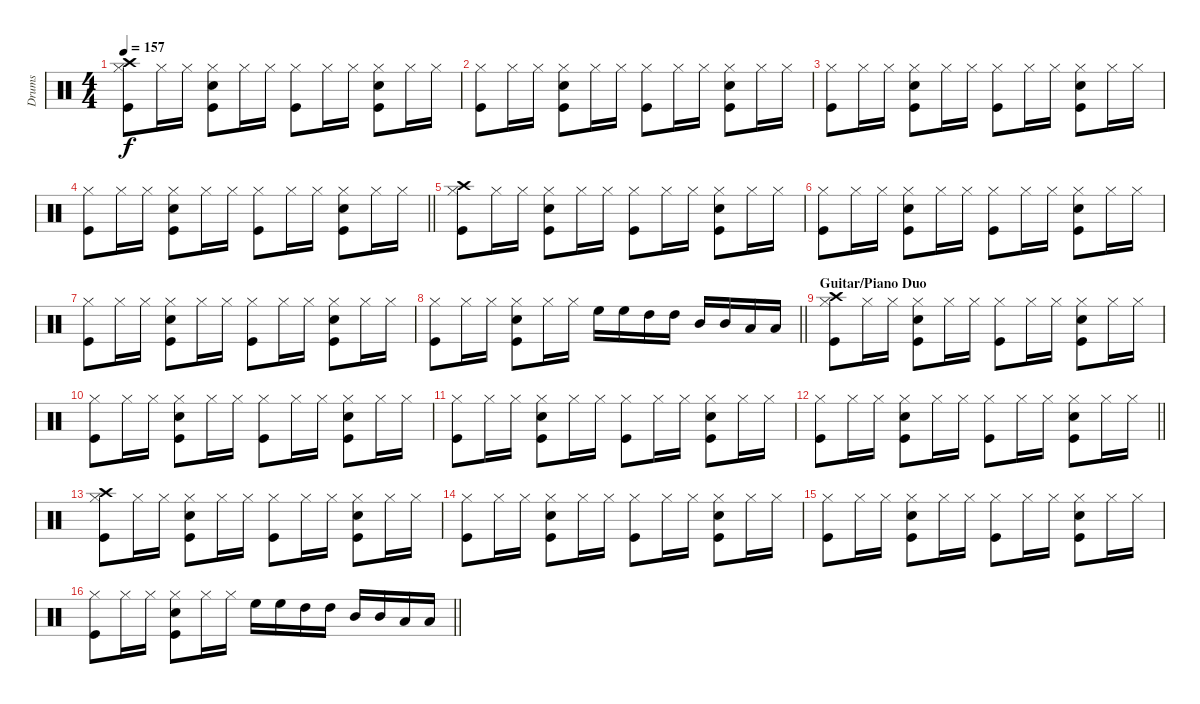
\track ("Drums" "Drums") {instrument percussion}
\staff {score}
\articulation defaults
\ts (4 4)
\tempo 157
\clef neutral
\ks c
("Hi-Hat (closed)" "Kick (hit)" "Crash high (hit)").8{dy f} "Hi-Hat (closed)".16 "Hi-Hat (closed)".16 ("Hi-Hat (closed)" "Kick (hit)" "Snare (hit) 2").8 "Hi-Hat (closed)".16 "Hi-Hat (closed)".16 ("Hi-Hat (closed)" "Kick (hit)").8 "Hi-Hat (closed)".16 "Hi-Hat (closed)".16 ("Hi-Hat (closed)" "Kick (hit)" "Snare (hit) 2").8 "Hi-Hat (closed)".16 "Hi-Hat (closed)".16 |
("Hi-Hat (closed)" "Kick (hit)").8 "Hi-Hat (closed)".16 "Hi-Hat (closed)".16 ("Hi-Hat (closed)" "Kick (hit)" "Snare (hit) 2").8 "Hi-Hat (closed)".16 "Hi-Hat (closed)".16 ("Hi-Hat (closed)" "Kick (hit)").8 "Hi-Hat (closed)".16 "Hi-Hat (closed)".16 ("Hi-Hat (closed)" "Kick (hit)" "Snare (hit) 2").8 "Hi-Hat (closed)".16 "Hi-Hat (closed)".16 |
("Hi-Hat (closed)" "Kick (hit)").8 "Hi-Hat (closed)".16 "Hi-Hat (closed)".16 ("Hi-Hat (closed)" "Kick (hit)" "Snare (hit) 2").8 "Hi-Hat (closed)".16 "Hi-Hat (closed)".16 ("Hi-Hat (closed)" "Kick (hit)").8 "Hi-Hat (closed)".16 "Hi-Hat (closed)".16 ("Hi-Hat (closed)" "Kick (hit)" "Snare (hit) 2").8 "Hi-Hat (closed)".16 "Hi-Hat (closed)".16 |
\barLineRight lightlight
("Hi-Hat (closed)" "Kick (hit)").8 "Hi-Hat (closed)".16 "Hi-Hat (closed)".16 ("Hi-Hat (closed)" "Kick (hit)" "Snare (hit) 2").8 "Hi-Hat (closed)".16 "Hi-Hat (closed)".16 ("Hi-Hat (closed)" "Kick (hit)").8 "Hi-Hat (closed)".16 "Hi-Hat (closed)".16 ("Hi-Hat (closed)" "Kick (hit)" "Snare (hit) 2").8 "Hi-Hat (closed)".16 "Hi-Hat (closed)".16 |
("Hi-Hat (closed)" "Kick (hit)" "Crash high (hit)").8 "Hi-Hat (closed)".16 "Hi-Hat (closed)".16 ("Hi-Hat (closed)" "Kick (hit)" "Snare (hit) 2").8 "Hi-Hat (closed)".16 "Hi-Hat (closed)".16 ("Hi-Hat (closed)" "Kick (hit)").8 "Hi-Hat (closed)".16 "Hi-Hat (closed)".16 ("Hi-Hat (closed)" "Kick (hit)" "Snare (hit) 2").8 "Hi-Hat (closed)".16 "Hi-Hat (closed)".16 |
("Hi-Hat (closed)" "Kick (hit)").8 "Hi-Hat (closed)".16 "Hi-Hat (closed)".16 ("Hi-Hat (closed)" "Kick (hit)" "Snare (hit) 2").8 "Hi-Hat (closed)".16 "Hi-Hat (closed)".16 ("Hi-Hat (closed)" "Kick (hit)").8 "Hi-Hat (closed)".16 "Hi-Hat (closed)".16 ("Hi-Hat (closed)" "Kick (hit)" "Snare (hit) 2").8 "Hi-Hat (closed)".16 "Hi-Hat (closed)".16 |
("Hi-Hat (closed)" "Kick (hit)").8 "Hi-Hat (closed)".16 "Hi-Hat (closed)".16 ("Hi-Hat (closed)" "Kick (hit)" "Snare (hit) 2").8 "Hi-Hat (closed)".16 "Hi-Hat (closed)".16 ("Hi-Hat (closed)" "Kick (hit)").8 "Hi-Hat (closed)".16 "Hi-Hat (closed)".16 ("Hi-Hat (closed)" "Kick (hit)" "Snare (hit) 2").8 "Hi-Hat (closed)".16 "Hi-Hat (closed)".16 |
\barLineRight lightlight
("Hi-Hat (closed)" "Kick (hit)").8 "Hi-Hat (closed)".16 "Hi-Hat (closed)".16 ("Hi-Hat (closed)" "Kick (hit)" "Snare (hit) 2").8 "Hi-Hat (closed)".16 "Hi-Hat (closed)".16 "High Floor Tom (hit)".16 "High Floor Tom (hit)".16 "High Tom (hit)".16 "High Tom (hit)".16 "Mid Tom (hit)".16 "Mid Tom (hit)".16 "Low Tom (hit)".16 "Low Tom (hit)".16 |
\section ("" "Guitar/Piano Duo")
("Hi-Hat (closed)" "Kick (hit)" "Crash high (hit)").8 "Hi-Hat (closed)".16 "Hi-Hat (closed)".16 ("Hi-Hat (closed)" "Kick (hit)" "Snare (hit) 2").8 "Hi-Hat (closed)".16 "Hi-Hat (closed)".16 ("Hi-Hat (closed)" "Kick (hit)").8 "Hi-Hat (closed)".16 "Hi-Hat (closed)".16 ("Hi-Hat (closed)" "Kick (hit)" "Snare (hit) 2").8 "Hi-Hat (closed)".16 "Hi-Hat (closed)".16 |
("Hi-Hat (closed)" "Kick (hit)").8 "Hi-Hat (closed)".16 "Hi-Hat (closed)".16 ("Hi-Hat (closed)" "Kick (hit)" "Snare (hit) 2").8 "Hi-Hat (closed)".16 "Hi-Hat (closed)".16 ("Hi-Hat (closed)" "Kick (hit)").8 "Hi-Hat (closed)".16 "Hi-Hat (closed)".16 ("Hi-Hat (closed)" "Kick (hit)" "Snare (hit) 2").8 "Hi-Hat (closed)".16 "Hi-Hat (closed)".16 |
("Hi-Hat (closed)" "Kick (hit)").8 "Hi-Hat (closed)".16 "Hi-Hat (closed)".16 ("Hi-Hat (closed)" "Kick (hit)" "Snare (hit) 2").8 "Hi-Hat (closed)".16 "Hi-Hat (closed)".16 ("Hi-Hat (closed)" "Kick (hit)").8 "Hi-Hat (closed)".16 "Hi-Hat (closed)".16 ("Hi-Hat (closed)" "Kick (hit)" "Snare (hit) 2").8 "Hi-Hat (closed)".16 "Hi-Hat (closed)".16 |
\barLineRight lightlight
("Hi-Hat (closed)" "Kick (hit)").8 "Hi-Hat (closed)".16 "Hi-Hat (closed)".16 ("Hi-Hat (closed)" "Kick (hit)" "Snare (hit) 2").8 "Hi-Hat (closed)".16 "Hi-Hat (closed)".16 ("Hi-Hat (closed)" "Kick (hit)").8 "Hi-Hat (closed)".16 "Hi-Hat (closed)".16 ("Hi-Hat (closed)" "Kick (hit)" "Snare (hit) 2").8 "Hi-Hat (closed)".16 "Hi-Hat (closed)".16 |
("Hi-Hat (closed)" "Kick (hit)" "Crash high (hit)").8 "Hi-Hat (closed)".16 "Hi-Hat (closed)".16 ("Hi-Hat (closed)" "Kick (hit)" "Snare (hit) 2").8 "Hi-Hat (closed)".16 "Hi-Hat (closed)".16 ("Hi-Hat (closed)" "Kick (hit)").8 "Hi-Hat (closed)".16 "Hi-Hat (closed)".16 ("Hi-Hat (closed)" "Kick (hit)" "Snare (hit) 2").8 "Hi-Hat (closed)".16 "Hi-Hat (closed)".16 |
("Hi-Hat (closed)" "Kick (hit)").8 "Hi-Hat (closed)".16 "Hi-Hat (closed)".16 ("Hi-Hat (closed)" "Kick (hit)" "Snare (hit) 2").8 "Hi-Hat (closed)".16 "Hi-Hat (closed)".16 ("Hi-Hat (closed)" "Kick (hit)").8 "Hi-Hat (closed)".16 "Hi-Hat (closed)".16 ("Hi-Hat (closed)" "Kick (hit)" "Snare (hit) 2").8 "Hi-Hat (closed)".16 "Hi-Hat (closed)".16 |
("Hi-Hat (closed)" "Kick (hit)").8 "Hi-Hat (closed)".16 "Hi-Hat (closed)".16 ("Hi-Hat (closed)" "Kick (hit)" "Snare (hit) 2").8 "Hi-Hat (closed)".16 "Hi-Hat (closed)".16 ("Hi-Hat (closed)" "Kick (hit)").8 "Hi-Hat (closed)".16 "Hi-Hat (closed)".16 ("Hi-Hat (closed)" "Kick (hit)" "Snare (hit) 2").8 "Hi-Hat (closed)".16 "Hi-Hat (closed)".16 |
\barLineRight lightlight
("Hi-Hat (closed)" "Kick (hit)").8 "Hi-Hat (closed)".16 "Hi-Hat (closed)".16 ("Hi-Hat (closed)" "Kick (hit)" "Snare (hit) 2").8 "Hi-Hat (closed)".16 "Hi-Hat (closed)".16 "High Floor Tom (hit)".16 "High Floor Tom (hit)".16 "High Tom (hit)".16 "High Tom (hit)".16 "Mid Tom (hit)".16 "Mid Tom (hit)".16 "Low Tom (hit)".16 "Low Tom (hit)".16
